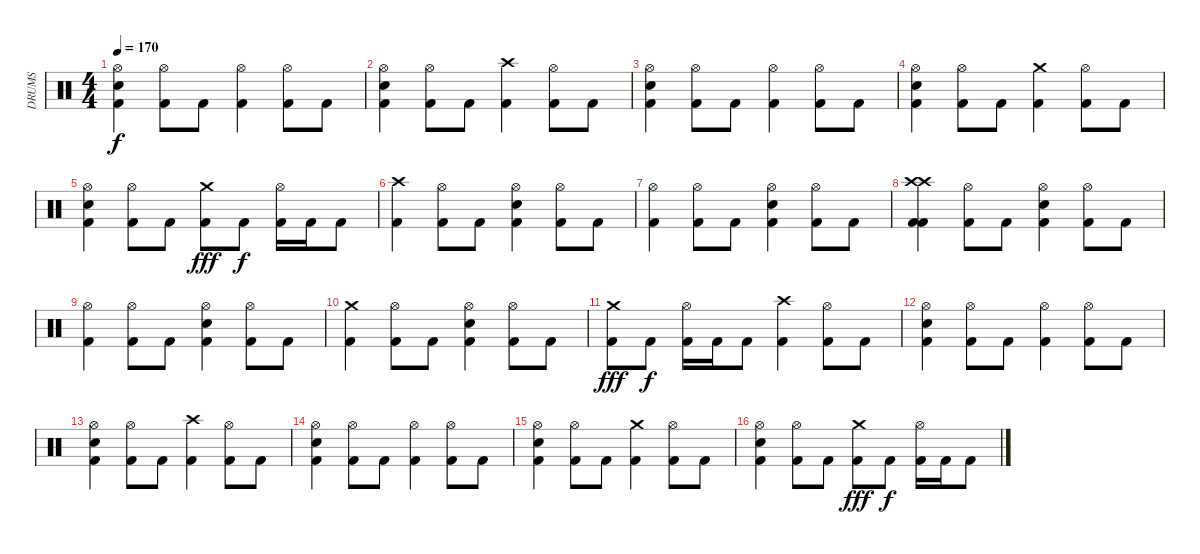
\track ("DRUMS" "DRUMS") {instrument percussion}
\staff {score}
\articulation defaults
\ts (4 4)
\tempo 170
\clef neutral
\ks c
("Hi-Hat (open)" "Snare (hit) 2" "Kick (hit) 2").4{dy f} ("Hi-Hat (open)" "Kick (hit) 2").8 "Kick (hit) 2".8 ("Hi-Hat (open)" "Kick (hit) 2").4 ("Hi-Hat (open)" "Kick (hit) 2").8 "Kick (hit) 2".8 |
("Hi-Hat (open)" "Snare (hit) 2" "Kick (hit) 2").4 ("Hi-Hat (open)" "Kick (hit) 2").8 "Kick (hit) 2".8 ("Crash high (hit)" "Kick (hit) 2").4 ("Hi-Hat (open)" "Kick (hit) 2").8 "Kick (hit) 2".8 |
("Hi-Hat (open)" "Snare (hit) 2" "Kick (hit) 2").4 ("Hi-Hat (open)" "Kick (hit) 2").8 "Kick (hit) 2".8 ("Hi-Hat (open)" "Kick (hit) 2").4 ("Hi-Hat (open)" "Kick (hit) 2").8 "Kick (hit) 2".8 |
("Hi-Hat (open)" "Snare (hit) 2" "Kick (hit) 2").4 ("Hi-Hat (open)" "Kick (hit) 2").8 "Kick (hit) 2".8 ("Crash medium (hit)" "Kick (hit) 2").4 ("Hi-Hat (open)" "Kick (hit) 2").8 "Kick (hit) 2".8 |
("Hi-Hat (open)" "Snare (hit) 2" "Kick (hit) 2").4 ("Hi-Hat (open)" "Kick (hit) 2").8 "Kick (hit) 2".8 ("Crash medium (hit)" "Kick (hit) 2").8{dy fff} "Kick (hit) 2".8{dy f} ("Hi-Hat (open)" "Kick (hit) 2").16 "Kick (hit) 2".16 "Kick (hit) 2".8 |
("Crash high (hit)" "Kick (hit) 2").4 ("Hi-Hat (open)" "Kick (hit) 2").8 "Kick (hit) 2".8 ("Hi-Hat (open)" "Snare (hit) 2" "Kick (hit) 2").4 ("Hi-Hat (open)" "Kick (hit) 2").8 "Kick (hit) 2".8 |
("Hi-Hat (open)" "Kick (hit) 2").4 ("Hi-Hat (open)" "Kick (hit) 2").8 "Kick (hit) 2".8 ("Hi-Hat (open)" "Snare (hit) 2" "Kick (hit) 2").4 ("Hi-Hat (open)" "Kick (hit) 2").8 "Kick (hit) 2".8 |
("Crash high (hit)" "Kick (hit) 2" "Crash high (hit)" "Kick (hit) 2").4 ("Hi-Hat (open)" "Kick (hit) 2").8 "Kick (hit) 2".8 ("Hi-Hat (open)" "Snare (hit) 2" "Kick (hit) 2").4 ("Hi-Hat (open)" "Kick (hit) 2").8 "Kick (hit) 2".8 |
("Hi-Hat (open)" "Kick (hit) 2").4 ("Hi-Hat (open)" "Kick (hit) 2").8 "Kick (hit) 2".8 ("Hi-Hat (open)" "Snare (hit) 2" "Kick (hit) 2").4 ("Hi-Hat (open)" "Kick (hit) 2").8 "Kick (hit) 2".8 |
("Crash medium (hit)" "Kick (hit) 2").4 ("Hi-Hat (open)" "Kick (hit) 2").8 "Kick (hit) 2".8 ("Hi-Hat (open)" "Snare (hit) 2" "Kick (hit) 2").4 ("Hi-Hat (open)" "Kick (hit) 2").8 "Kick (hit) 2".8 |
("Crash medium (hit)" "Kick (hit) 2").8{dy fff} "Kick (hit) 2".8{dy f} ("Hi-Hat (open)" "Kick (hit) 2").16 "Kick (hit) 2".16 "Kick (hit) 2".8 ("Crash high (hit)" "Kick (hit) 2").4 ("Hi-Hat (open)" "Kick (hit) 2").8 "Kick (hit) 2".8 |
("Hi-Hat (open)" "Snare (hit) 2" "Kick (hit) 2").4 ("Hi-Hat (open)" "Kick (hit) 2").8 "Kick (hit) 2".8 ("Hi-Hat (open)" "Kick (hit) 2").4 ("Hi-Hat (open)" "Kick (hit) 2").8 "Kick (hit) 2".8 |
("Hi-Hat (open)" "Snare (hit) 2" "Kick (hit) 2").4 ("Hi-Hat (open)" "Kick (hit) 2").8 "Kick (hit) 2".8 ("Crash high (hit)" "Kick (hit) 2").4 ("Hi-Hat (open)" "Kick (hit) 2").8 "Kick (hit) 2".8 |
("Hi-Hat (open)" "Snare (hit) 2" "Kick (hit) 2").4 ("Hi-Hat (open)" "Kick (hit) 2").8 "Kick (hit) 2".8 ("Hi-Hat (open)" "Kick (hit) 2").4 ("Hi-Hat (open)" "Kick (hit) 2").8 "Kick (hit) 2".8 |
("Hi-Hat (open)" "Snare (hit) 2" "Kick (hit) 2").4 ("Hi-Hat (open)" "Kick (hit) 2").8 "Kick (hit) 2".8 ("Crash medium (hit)" "Kick (hit) 2").4 ("Hi-Hat (open)" "Kick (hit) 2").8 "Kick (hit) 2".8 |
("Hi-Hat (open)" "Snare (hit) 2" "Kick (hit) 2").4 ("Hi-Hat (open)" "Kick (hit) 2").8 "Kick (hit) 2".8 ("Crash medium (hit)" "Kick (hit) 2").8{dy fff} "Kick (hit) 2".8{dy f} ("Hi-Hat (open)" "Kick (hit) 2").16 "Kick (hit) 2".16 "Kick (hit) 2".8
